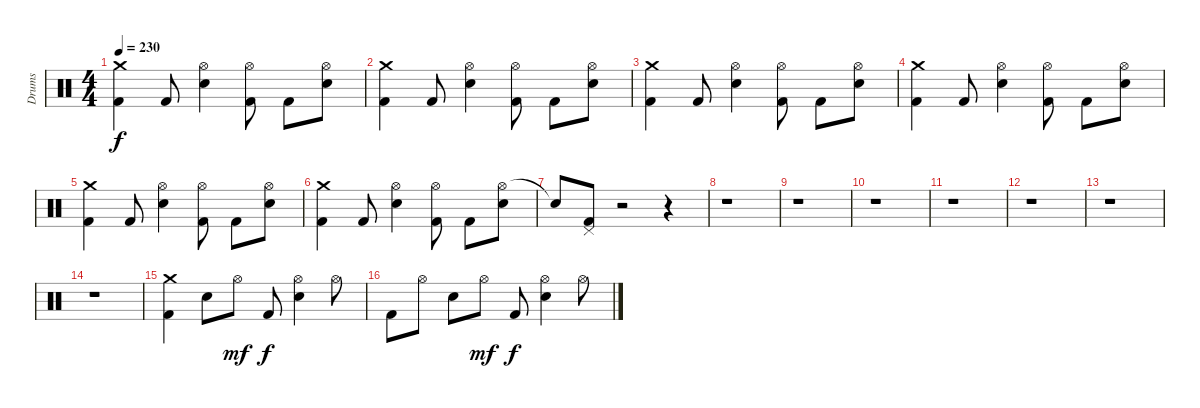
\track ("Drums" "Drums") {instrument percussion}
\staff {score}
\articulation defaults
\ts (4 4)
\tempo 230
\clef neutral
\ks c
("Crash medium (hit)" "Kick (hit) 2").4{dy f} "Kick (hit) 2".8 ("Hi-Hat (open)" "Electric Snare (hit)").4 ("Hi-Hat (open)" "Kick (hit) 2").8 "Kick (hit) 2".8 ("Hi-Hat (open)" "Electric Snare (hit)").8 |
("Crash medium (hit)" "Kick (hit) 2").4 "Kick (hit) 2".8 ("Hi-Hat (open)" "Electric Snare (hit)").4 ("Hi-Hat (open)" "Kick (hit) 2").8 "Kick (hit) 2".8 ("Hi-Hat (open)" "Electric Snare (hit)").8 |
("Crash medium (hit)" "Kick (hit) 2").4 "Kick (hit) 2".8 ("Hi-Hat (open)" "Electric Snare (hit)").4 ("Hi-Hat (open)" "Kick (hit) 2").8 "Kick (hit) 2".8 ("Hi-Hat (open)" "Electric Snare (hit)").8 |
("Crash medium (hit)" "Kick (hit) 2").4 "Kick (hit) 2".8 ("Hi-Hat (open)" "Electric Snare (hit)").4 ("Hi-Hat (open)" "Kick (hit) 2").8 "Kick (hit) 2".8 ("Hi-Hat (open)" "Electric Snare (hit)").8 |
("Crash medium (hit)" "Kick (hit) 2").4 "Kick (hit) 2".8 ("Hi-Hat (open)" "Electric Snare (hit)").4 ("Hi-Hat (open)" "Kick (hit) 2").8 "Kick (hit) 2".8 ("Hi-Hat (open)" "Electric Snare (hit)").8 |
("Crash medium (hit)" "Kick (hit) 2").4 "Kick (hit) 2".8 ("Hi-Hat (open)" "Electric Snare (hit)").4 ("Hi-Hat (open)" "Kick (hit) 2").8 "Kick (hit) 2".8 ("Hi-Hat (open)" "Electric Snare (hit)").8 |
"Snare (hit)"{t}.8 ("Pedal Hi-Hat (hit)" "Kick (hit) 2").8 r.2 r.4 |
r.1 |
r.1 |
r.1 |
r.1 |
r.1 |
r.1 |
r.1 |
("Crash medium (hit)" "Kick (hit) 2").4 "Electric Snare (hit)".8 "Hi-Hat (open)".8{dy mf} "Kick (hit) 2".8{dy f} ("Hi-Hat (open)" "Electric Snare (hit)").4 "Hi-Hat (open)".8 |
"Kick (hit) 2".8 "Hi-Hat (open)".8 "Electric Snare (hit)".8 "Hi-Hat (open)".8{dy mf} "Kick (hit) 2".8{dy f} ("Hi-Hat (open)" "Electric Snare (hit)").4 "Hi-Hat (open)".8
